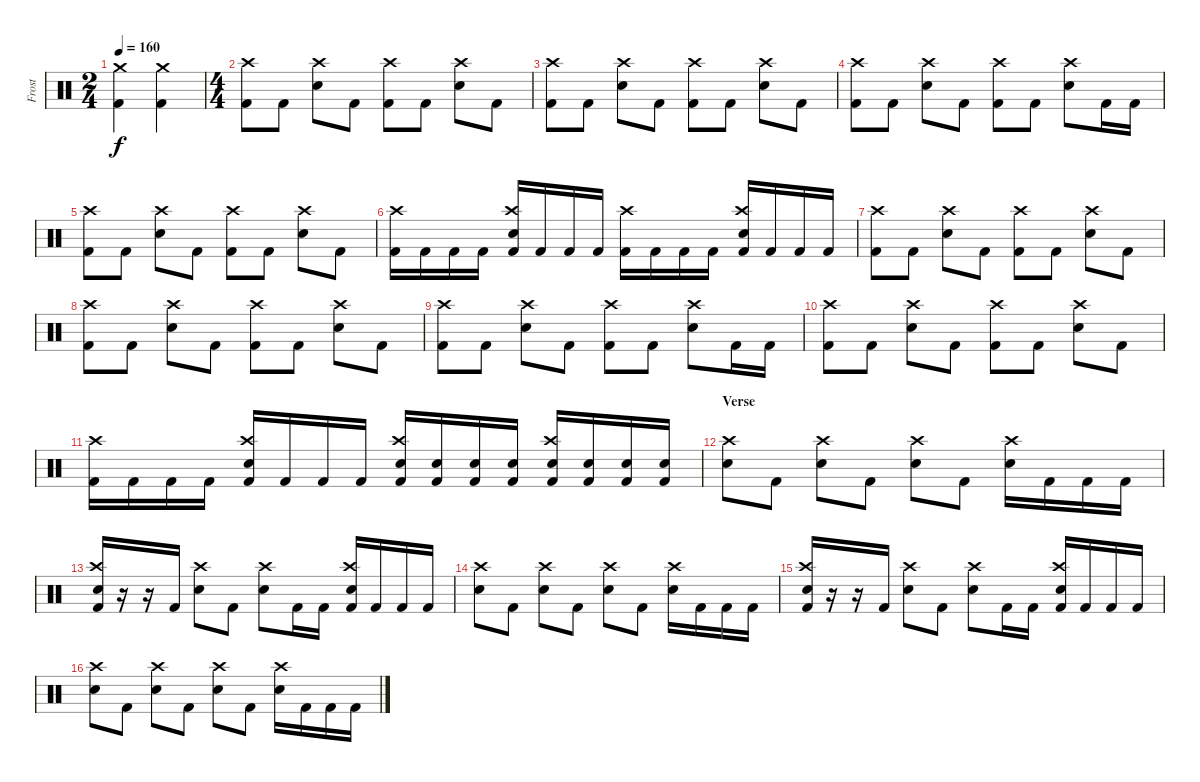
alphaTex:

\track ("Frost" "Frost") {instrument percussion}
\staff {score}
\articulation defaults
\ts (2 4)
\tempo 160
\clef neutral
\ks c
("Crash medium (hit)" "Kick (hit) 2").4{dy f} ("Crash medium (hit)" "Kick (hit) 2").4 |
\ts (4 4)
("Crash high (hit)" "Kick (hit) 2").8 "Kick (hit) 2".8 ("Crash high (hit)" "Snare (hit) 2").8 "Kick (hit) 2".8 ("Crash high (hit)" "Kick (hit) 2").8 "Kick (hit) 2".8 ("Crash high (hit)" "Snare (hit) 2").8 "Kick (hit) 2".8 |
("Crash high (hit)" "Kick (hit) 2").8 "Kick (hit) 2".8 ("Crash high (hit)" "Snare (hit) 2").8 "Kick (hit) 2".8 ("Crash high (hit)" "Kick (hit) 2").8 "Kick (hit) 2".8 ("Crash high (hit)" "Snare (hit) 2").8 "Kick (hit) 2".8 |
("Crash high (hit)" "Kick (hit) 2").8 "Kick (hit) 2".8 ("Crash high (hit)" "Snare (hit) 2").8 "Kick (hit) 2".8 ("Crash high (hit)" "Kick (hit) 2").8 "Kick (hit) 2".8 ("Crash high (hit)" "Snare (hit) 2").8 "Kick (hit) 2".16 "Kick (hit) 2".16 |
("Crash high (hit)" "Kick (hit) 2").8 "Kick (hit) 2".8 ("Crash high (hit)" "Snare (hit) 2").8 "Kick (hit) 2".8 ("Crash high (hit)" "Kick (hit) 2").8 "Kick (hit) 2".8 ("Crash high (hit)" "Snare (hit) 2").8 "Kick (hit) 2".8 |
("Crash high (hit)" "Kick (hit) 2").16 "Kick (hit) 2".16 "Kick (hit) 2".16 "Kick (hit) 2".16 ("Crash high (hit)" "Snare (hit) 2" "Kick (hit) 2").16 "Kick (hit) 2".16 "Kick (hit) 2".16 "Kick (hit) 2".16 ("Crash high (hit)" "Kick (hit) 2").16 "Kick (hit) 2".16 "Kick (hit) 2".16 "Kick (hit) 2".16 ("Crash high (hit)" "Snare (hit) 2" "Kick (hit) 2").16 "Kick (hit) 2".16 "Kick (hit) 2".16 "Kick (hit) 2".16 |
("Crash high (hit)" "Kick (hit) 2").8 "Kick (hit) 2".8 ("Crash high (hit)" "Snare (hit) 2").8 "Kick (hit) 2".8 ("Crash high (hit)" "Kick (hit) 2").8 "Kick (hit) 2".8 ("Crash high (hit)" "Snare (hit) 2").8 "Kick (hit) 2".8 |
("Crash high (hit)" "Kick (hit) 2").8 "Kick (hit) 2".8 ("Crash high (hit)" "Snare (hit) 2").8 "Kick (hit) 2".8 ("Crash high (hit)" "Kick (hit) 2").8 "Kick (hit) 2".8 ("Crash high (hit)" "Snare (hit) 2").8 "Kick (hit) 2".8 |
("Crash high (hit)" "Kick (hit) 2").8 "Kick (hit) 2".8 ("Crash high (hit)" "Snare (hit) 2").8 "Kick (hit) 2".8 ("Crash high (hit)" "Kick (hit) 2").8 "Kick (hit) 2".8 ("Crash high (hit)" "Snare (hit) 2").8 "Kick (hit) 2".16 "Kick (hit) 2".16 |
("Crash high (hit)" "Kick (hit) 2").8 "Kick (hit) 2".8 ("Crash high (hit)" "Snare (hit) 2").8 "Kick (hit) 2".8 ("Crash high (hit)" "Kick (hit) 2").8 "Kick (hit) 2".8 ("Crash high (hit)" "Snare (hit) 2").8 "Kick (hit) 2".8 |
("Crash high (hit)" "Kick (hit) 2").16 "Kick (hit) 2".16 "Kick (hit) 2".16 "Kick (hit) 2".16 ("Crash high (hit)" "Snare (hit) 2" "Kick (hit) 2").16 "Kick (hit) 2".16 "Kick (hit) 2".16 "Kick (hit) 2".16 ("Crash high (hit)" "Snare (hit) 2" "Kick (hit) 2").16 ("Snare (hit) 2" "Kick (hit) 2").16 ("Snare (hit) 2" "Kick (hit) 2").16 ("Snare (hit) 2" "Kick (hit) 2").16 ("Crash high (hit)" "Snare (hit) 2" "Kick (hit) 2").16 ("Snare (hit) 2" "Kick (hit) 2").16 ("Snare (hit) 2" "Kick (hit) 2").16 ("Snare (hit) 2" "Kick (hit) 2").16 |
\section ("" "Verse")
("Crash high (hit)" "Snare (hit) 2").8 "Kick (hit) 2".8 ("Crash high (hit)" "Snare (hit) 2").8 "Kick (hit) 2".8 ("Crash high (hit)" "Snare (hit) 2").8 "Kick (hit) 2".8 ("Crash high (hit)" "Snare (hit) 2").16 "Kick (hit) 2".16 "Kick (hit) 2".16 "Kick (hit) 2".16 |
("Crash high (hit)" "Snare (hit) 2" "Kick (hit) 2").16 r.16 r.16 "Kick (hit) 2".16 ("Crash high (hit)" "Snare (hit) 2").8 "Kick (hit) 2".8 ("Crash high (hit)" "Snare (hit) 2").8 "Kick (hit) 2".16 "Kick (hit) 2".16 ("Crash high (hit)" "Snare (hit) 2" "Kick (hit) 2").16 "Kick (hit) 2".16 "Kick (hit) 2".16 "Kick (hit) 2".16 |
("Crash high (hit)" "Snare (hit) 2").8 "Kick (hit) 2".8 ("Crash high (hit)" "Snare (hit) 2").8 "Kick (hit) 2".8 ("Crash high (hit)" "Snare (hit) 2").8 "Kick (hit) 2".8 ("Crash high (hit)" "Snare (hit) 2").16 "Kick (hit) 2".16 "Kick (hit) 2".16 "Kick (hit) 2".16 |
("Crash high (hit)" "Snare (hit) 2" "Kick (hit) 2").16 r.16 r.16 "Kick (hit) 2".16 ("Crash high (hit)" "Snare (hit) 2").8 "Kick (hit) 2".8 ("Crash high (hit)" "Snare (hit) 2").8 "Kick (hit) 2".16 "Kick (hit) 2".16 ("Crash high (hit)" "Snare (hit) 2" "Kick (hit) 2").16 "Kick (hit) 2".16 "Kick (hit) 2".16 "Kick (hit) 2".16 |
("Crash high (hit)" "Snare (hit) 2").8 "Kick (hit) 2".8 ("Crash high (hit)" "Snare (hit) 2").8 "Kick (hit) 2".8 ("Crash high (hit)" "Snare (hit) 2").8 "Kick (hit) 2".8 ("Crash high (hit)" "Snare (hit) 2").16 "Kick (hit) 2".16 "Kick (hit) 2".16 "Kick (hit) 2".16
